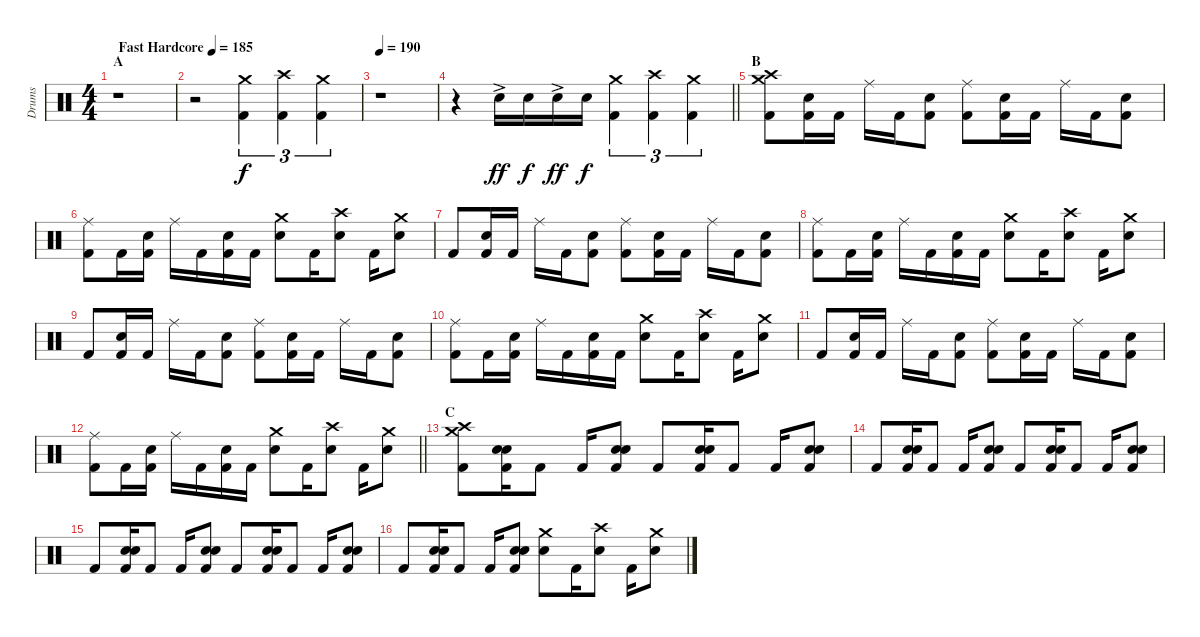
\track ("Drums" "Drums") {instrument percussion}
\staff {score}
\articulation defaults
\ts (4 4)
\section ("" "A")
\tempo (185 "Fast Hardcore")
\clef neutral
\ks c
r.1{dy f} |
r.2 ("Crash medium (hit)" "Kick (hit) 2").4{tu (3 2)} ("Crash high (hit)" "Kick (hit) 2").4{tu (3 2)} ("Crash medium (hit)" "Kick (hit) 2").4{tu (3 2)} |
\tempo 190
r.1 |
\barLineRight lightlight
r.4 "Electric Snare (hit)"{ac}.16{dy ff} "Electric Snare (hit)".16{dy f} "Electric Snare (hit)"{ac}.16{dy ff} "Electric Snare (hit)".16{dy f} ("Crash medium (hit)" "Kick (hit) 2").4{tu (3 2)} ("Crash high (hit)" "Kick (hit) 2").4{tu (3 2)} ("Crash medium (hit)" "Kick (hit) 2").4{tu (3 2)} |
\section ("" "B")
("Crash medium (hit)" "Crash high (hit)" "Kick (hit) 2").8 ("Electric Snare (hit)" "Kick (hit) 2").16 "Kick (hit) 2".16 "Ride (middle)".16 "Kick (hit) 2".16 ("Electric Snare (hit)" "Kick (hit) 2").8 ("Ride (middle)" "Kick (hit) 2").8 ("Electric Snare (hit)" "Kick (hit) 2").16 "Kick (hit) 2".16 "Ride (middle)".16 "Kick (hit) 2".16 ("Electric Snare (hit)" "Kick (hit) 2").8 |
("Ride (middle)" "Kick (hit) 2").8 "Kick (hit) 2".16 ("Electric Snare (hit)" "Kick (hit) 2").16 "Ride (middle)".16 "Kick (hit) 2".16 ("Electric Snare (hit)" "Kick (hit) 2").16 "Kick (hit) 2".16 ("Crash medium (hit)" "Electric Snare (hit)").8 "Kick (hit) 2".16 ("Crash high (hit)" "Electric Snare (hit)").8 "Kick (hit) 2".16 ("Crash medium (hit)" "Electric Snare (hit)").8 |
"Kick (hit) 2".8 ("Electric Snare (hit)" "Kick (hit) 2").16 "Kick (hit) 2".16 "Ride (middle)".16 "Kick (hit) 2".16 ("Electric Snare (hit)" "Kick (hit) 2").8 ("Ride (middle)" "Kick (hit) 2").8 ("Electric Snare (hit)" "Kick (hit) 2").16 "Kick (hit) 2".16 "Ride (middle)".16 "Kick (hit) 2".16 ("Electric Snare (hit)" "Kick (hit) 2").8 |
("Ride (middle)" "Kick (hit) 2").8 "Kick (hit) 2".16 ("Electric Snare (hit)" "Kick (hit) 2").16 "Ride (middle)".16 "Kick (hit) 2".16 ("Electric Snare (hit)" "Kick (hit) 2").16 "Kick (hit) 2".16 ("Crash medium (hit)" "Electric Snare (hit)").8 "Kick (hit) 2".16 ("Crash high (hit)" "Electric Snare (hit)").8 "Kick (hit) 2".16 ("Crash medium (hit)" "Electric Snare (hit)").8 |
"Kick (hit) 2".8 ("Electric Snare (hit)" "Kick (hit) 2").16 "Kick (hit) 2".16 "Ride (middle)".16 "Kick (hit) 2".16 ("Electric Snare (hit)" "Kick (hit) 2").8 ("Ride (middle)" "Kick (hit) 2").8 ("Electric Snare (hit)" "Kick (hit) 2").16 "Kick (hit) 2".16 "Ride (middle)".16 "Kick (hit) 2".16 ("Electric Snare (hit)" "Kick (hit) 2").8 |
("Ride (middle)" "Kick (hit) 2").8 "Kick (hit) 2".16 ("Electric Snare (hit)" "Kick (hit) 2").16 "Ride (middle)".16 "Kick (hit) 2".16 ("Electric Snare (hit)" "Kick (hit) 2").16 "Kick (hit) 2".16 ("Crash medium (hit)" "Electric Snare (hit)").8 "Kick (hit) 2".16 ("Crash high (hit)" "Electric Snare (hit)").8 "Kick (hit) 2".16 ("Crash medium (hit)" "Electric Snare (hit)").8 |
"Kick (hit) 2".8 ("Electric Snare (hit)" "Kick (hit) 2").16 "Kick (hit) 2".16 "Ride (middle)".16 "Kick (hit) 2".16 ("Electric Snare (hit)" "Kick (hit) 2").8 ("Ride (middle)" "Kick (hit) 2").8 ("Electric Snare (hit)" "Kick (hit) 2").16 "Kick (hit) 2".16 "Ride (middle)".16 "Kick (hit) 2".16 ("Electric Snare (hit)" "Kick (hit) 2").8 |
\barLineRight lightlight
("Ride (middle)" "Kick (hit) 2").8 "Kick (hit) 2".16 ("Electric Snare (hit)" "Kick (hit) 2").16 "Ride (middle)".16 "Kick (hit) 2".16 ("Electric Snare (hit)" "Kick (hit) 2").16 "Kick (hit) 2".16 ("Crash medium (hit)" "Electric Snare (hit)").8 "Kick (hit) 2".16 ("Crash high (hit)" "Electric Snare (hit)").8 "Kick (hit) 2".16 ("Crash medium (hit)" "Electric Snare (hit)").8 |
\section ("" "C")
("Crash medium (hit)" "Crash high (hit)" "Kick (hit) 2").8 ("Electric Snare (hit)" "Electric Snare (hit)" "Kick (hit) 2").16 "Kick (hit) 2".8 "Kick (hit) 2".16 ("Electric Snare (hit)" "Electric Snare (hit)" "Kick (hit) 2").8 "Kick (hit) 2".8 ("Electric Snare (hit)" "Electric Snare (hit)" "Kick (hit) 2").16 "Kick (hit) 2".8 "Kick (hit) 2".16 ("Electric Snare (hit)" "Electric Snare (hit)" "Kick (hit) 2").8 |
"Kick (hit) 2".8 ("Electric Snare (hit)" "Electric Snare (hit)" "Kick (hit) 2").16 "Kick (hit) 2".8 "Kick (hit) 2".16 ("Electric Snare (hit)" "Electric Snare (hit)" "Kick (hit) 2").8 "Kick (hit) 2".8 ("Electric Snare (hit)" "Electric Snare (hit)" "Kick (hit) 2").16 "Kick (hit) 2".8 "Kick (hit) 2".16 ("Electric Snare (hit)" "Electric Snare (hit)" "Kick (hit) 2").8 |
"Kick (hit) 2".8 ("Electric Snare (hit)" "Electric Snare (hit)" "Kick (hit) 2").16 "Kick (hit) 2".8 "Kick (hit) 2".16 ("Electric Snare (hit)" "Electric Snare (hit)" "Kick (hit) 2").8 "Kick (hit) 2".8 ("Electric Snare (hit)" "Electric Snare (hit)" "Kick (hit) 2").16 "Kick (hit) 2".8 "Kick (hit) 2".16 ("Electric Snare (hit)" "Electric Snare (hit)" "Kick (hit) 2").8 |
"Kick (hit) 2".8 ("Electric Snare (hit)" "Electric Snare (hit)" "Kick (hit) 2").16 "Kick (hit) 2".8 "Kick (hit) 2".16 ("Electric Snare (hit)" "Electric Snare (hit)" "Kick (hit) 2").8 ("Crash medium (hit)" "Electric Snare (hit)").8 "Kick (hit) 2".16 ("Crash high (hit)" "Electric Snare (hit)").8 "Kick (hit) 2".16 ("Crash medium (hit)" "Electric Snare (hit)").8
